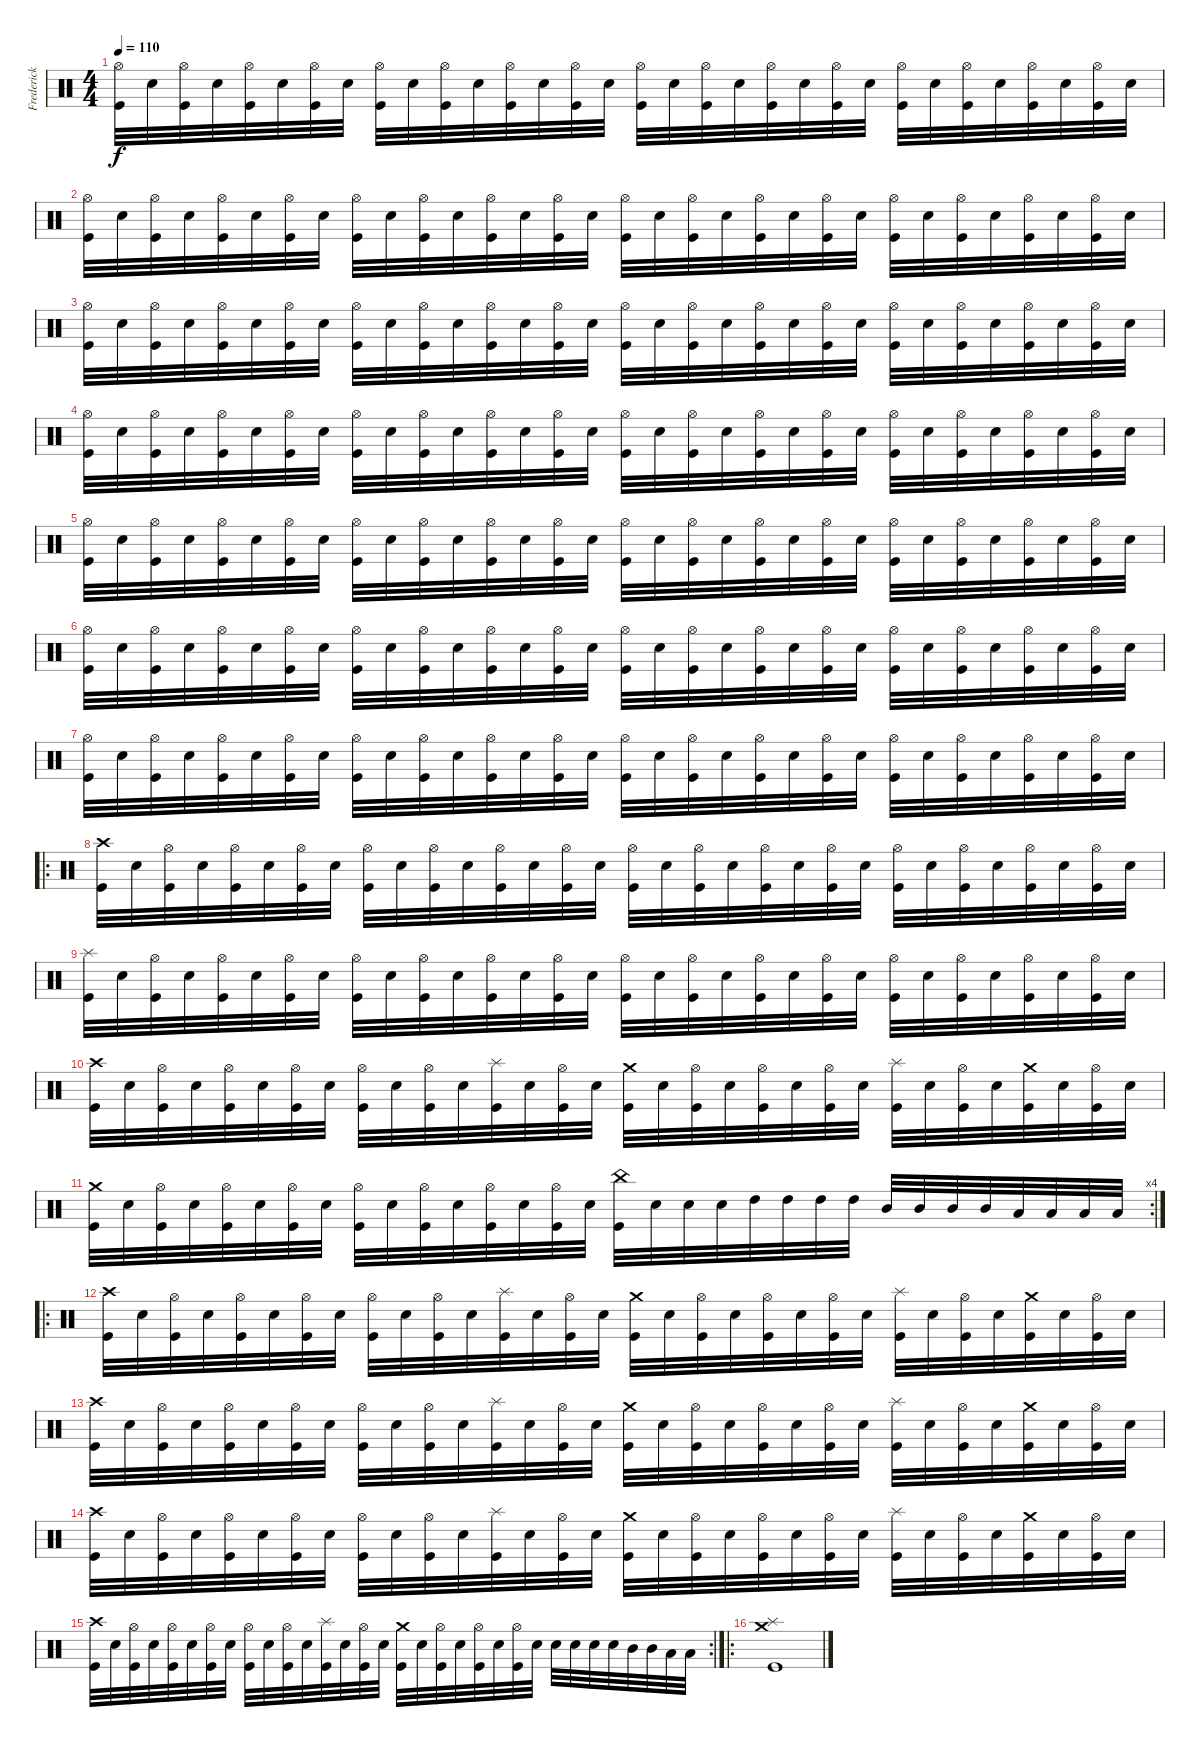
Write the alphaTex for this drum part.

\track ("Frederick" "Frederick") {instrument percussion}
\staff {score}
\articulation defaults
\ts (4 4)
\tempo 110
\clef neutral
\ks c
("Hi-Hat (open)" "Kick (hit)").32{dy f} "Electric Snare (hit)".32 ("Hi-Hat (open)" "Kick (hit)").32 "Electric Snare (hit)".32 ("Hi-Hat (open)" "Kick (hit)").32 "Electric Snare (hit)".32 ("Hi-Hat (open)" "Kick (hit)").32 "Electric Snare (hit)".32 ("Hi-Hat (open)" "Kick (hit)").32 "Electric Snare (hit)".32 ("Hi-Hat (open)" "Kick (hit)").32 "Electric Snare (hit)".32 ("Hi-Hat (open)" "Kick (hit)").32 "Electric Snare (hit)".32 ("Hi-Hat (open)" "Kick (hit)").32 "Electric Snare (hit)".32 ("Hi-Hat (open)" "Kick (hit)").32 "Electric Snare (hit)".32 ("Hi-Hat (open)" "Kick (hit)").32 "Electric Snare (hit)".32 ("Hi-Hat (open)" "Kick (hit)").32 "Electric Snare (hit)".32 ("Hi-Hat (open)" "Kick (hit)").32 "Electric Snare (hit)".32 ("Hi-Hat (open)" "Kick (hit)").32 "Electric Snare (hit)".32 ("Hi-Hat (open)" "Kick (hit)").32 "Electric Snare (hit)".32 ("Hi-Hat (open)" "Kick (hit)").32 "Electric Snare (hit)".32 ("Hi-Hat (open)" "Kick (hit)").32 "Electric Snare (hit)".32 |
("Hi-Hat (open)" "Kick (hit)").32 "Electric Snare (hit)".32 ("Hi-Hat (open)" "Kick (hit)").32 "Electric Snare (hit)".32 ("Hi-Hat (open)" "Kick (hit)").32 "Electric Snare (hit)".32 ("Hi-Hat (open)" "Kick (hit)").32 "Electric Snare (hit)".32 ("Hi-Hat (open)" "Kick (hit)").32 "Electric Snare (hit)".32 ("Hi-Hat (open)" "Kick (hit)").32 "Electric Snare (hit)".32 ("Hi-Hat (open)" "Kick (hit)").32 "Electric Snare (hit)".32 ("Hi-Hat (open)" "Kick (hit)").32 "Electric Snare (hit)".32 ("Hi-Hat (open)" "Kick (hit)").32 "Electric Snare (hit)".32 ("Hi-Hat (open)" "Kick (hit)").32 "Electric Snare (hit)".32 ("Hi-Hat (open)" "Kick (hit)").32 "Electric Snare (hit)".32 ("Hi-Hat (open)" "Kick (hit)").32 "Electric Snare (hit)".32 ("Hi-Hat (open)" "Kick (hit)").32 "Electric Snare (hit)".32 ("Hi-Hat (open)" "Kick (hit)").32 "Electric Snare (hit)".32 ("Hi-Hat (open)" "Kick (hit)").32 "Electric Snare (hit)".32 ("Hi-Hat (open)" "Kick (hit)").32 "Electric Snare (hit)".32 |
("Hi-Hat (open)" "Kick (hit)").32 "Electric Snare (hit)".32 ("Hi-Hat (open)" "Kick (hit)").32 "Electric Snare (hit)".32 ("Hi-Hat (open)" "Kick (hit)").32 "Electric Snare (hit)".32 ("Hi-Hat (open)" "Kick (hit)").32 "Electric Snare (hit)".32 ("Hi-Hat (open)" "Kick (hit)").32 "Electric Snare (hit)".32 ("Hi-Hat (open)" "Kick (hit)").32 "Electric Snare (hit)".32 ("Hi-Hat (open)" "Kick (hit)").32 "Electric Snare (hit)".32 ("Hi-Hat (open)" "Kick (hit)").32 "Electric Snare (hit)".32 ("Hi-Hat (open)" "Kick (hit)").32 "Electric Snare (hit)".32 ("Hi-Hat (open)" "Kick (hit)").32 "Electric Snare (hit)".32 ("Hi-Hat (open)" "Kick (hit)").32 "Electric Snare (hit)".32 ("Hi-Hat (open)" "Kick (hit)").32 "Electric Snare (hit)".32 ("Hi-Hat (open)" "Kick (hit)").32 "Electric Snare (hit)".32 ("Hi-Hat (open)" "Kick (hit)").32 "Electric Snare (hit)".32 ("Hi-Hat (open)" "Kick (hit)").32 "Electric Snare (hit)".32 ("Hi-Hat (open)" "Kick (hit)").32 "Electric Snare (hit)".32 |
("Hi-Hat (open)" "Kick (hit)").32 "Electric Snare (hit)".32 ("Hi-Hat (open)" "Kick (hit)").32 "Electric Snare (hit)".32 ("Hi-Hat (open)" "Kick (hit)").32 "Electric Snare (hit)".32 ("Hi-Hat (open)" "Kick (hit)").32 "Electric Snare (hit)".32 ("Hi-Hat (open)" "Kick (hit)").32 "Electric Snare (hit)".32 ("Hi-Hat (open)" "Kick (hit)").32 "Electric Snare (hit)".32 ("Hi-Hat (open)" "Kick (hit)").32 "Electric Snare (hit)".32 ("Hi-Hat (open)" "Kick (hit)").32 "Electric Snare (hit)".32 ("Hi-Hat (open)" "Kick (hit)").32 "Electric Snare (hit)".32 ("Hi-Hat (open)" "Kick (hit)").32 "Electric Snare (hit)".32 ("Hi-Hat (open)" "Kick (hit)").32 "Electric Snare (hit)".32 ("Hi-Hat (open)" "Kick (hit)").32 "Electric Snare (hit)".32 ("Hi-Hat (open)" "Kick (hit)").32 "Electric Snare (hit)".32 ("Hi-Hat (open)" "Kick (hit)").32 "Electric Snare (hit)".32 ("Hi-Hat (open)" "Kick (hit)").32 "Electric Snare (hit)".32 ("Hi-Hat (open)" "Kick (hit)").32 "Electric Snare (hit)".32 |
("Hi-Hat (open)" "Kick (hit)").32 "Electric Snare (hit)".32 ("Hi-Hat (open)" "Kick (hit)").32 "Electric Snare (hit)".32 ("Hi-Hat (open)" "Kick (hit)").32 "Electric Snare (hit)".32 ("Hi-Hat (open)" "Kick (hit)").32 "Electric Snare (hit)".32 ("Hi-Hat (open)" "Kick (hit)").32 "Electric Snare (hit)".32 ("Hi-Hat (open)" "Kick (hit)").32 "Electric Snare (hit)".32 ("Hi-Hat (open)" "Kick (hit)").32 "Electric Snare (hit)".32 ("Hi-Hat (open)" "Kick (hit)").32 "Electric Snare (hit)".32 ("Hi-Hat (open)" "Kick (hit)").32 "Electric Snare (hit)".32 ("Hi-Hat (open)" "Kick (hit)").32 "Electric Snare (hit)".32 ("Hi-Hat (open)" "Kick (hit)").32 "Electric Snare (hit)".32 ("Hi-Hat (open)" "Kick (hit)").32 "Electric Snare (hit)".32 ("Hi-Hat (open)" "Kick (hit)").32 "Electric Snare (hit)".32 ("Hi-Hat (open)" "Kick (hit)").32 "Electric Snare (hit)".32 ("Hi-Hat (open)" "Kick (hit)").32 "Electric Snare (hit)".32 ("Hi-Hat (open)" "Kick (hit)").32 "Electric Snare (hit)".32 |
("Hi-Hat (open)" "Kick (hit)").32 "Electric Snare (hit)".32 ("Hi-Hat (open)" "Kick (hit)").32 "Electric Snare (hit)".32 ("Hi-Hat (open)" "Kick (hit)").32 "Electric Snare (hit)".32 ("Hi-Hat (open)" "Kick (hit)").32 "Electric Snare (hit)".32 ("Hi-Hat (open)" "Kick (hit)").32 "Electric Snare (hit)".32 ("Hi-Hat (open)" "Kick (hit)").32 "Electric Snare (hit)".32 ("Hi-Hat (open)" "Kick (hit)").32 "Electric Snare (hit)".32 ("Hi-Hat (open)" "Kick (hit)").32 "Electric Snare (hit)".32 ("Hi-Hat (open)" "Kick (hit)").32 "Electric Snare (hit)".32 ("Hi-Hat (open)" "Kick (hit)").32 "Electric Snare (hit)".32 ("Hi-Hat (open)" "Kick (hit)").32 "Electric Snare (hit)".32 ("Hi-Hat (open)" "Kick (hit)").32 "Electric Snare (hit)".32 ("Hi-Hat (open)" "Kick (hit)").32 "Electric Snare (hit)".32 ("Hi-Hat (open)" "Kick (hit)").32 "Electric Snare (hit)".32 ("Hi-Hat (open)" "Kick (hit)").32 "Electric Snare (hit)".32 ("Hi-Hat (open)" "Kick (hit)").32 "Electric Snare (hit)".32 |
("Hi-Hat (open)" "Kick (hit)").32 "Electric Snare (hit)".32 ("Hi-Hat (open)" "Kick (hit)").32 "Electric Snare (hit)".32 ("Hi-Hat (open)" "Kick (hit)").32 "Electric Snare (hit)".32 ("Hi-Hat (open)" "Kick (hit)").32 "Electric Snare (hit)".32 ("Hi-Hat (open)" "Kick (hit)").32 "Electric Snare (hit)".32 ("Hi-Hat (open)" "Kick (hit)").32 "Electric Snare (hit)".32 ("Hi-Hat (open)" "Kick (hit)").32 "Electric Snare (hit)".32 ("Hi-Hat (open)" "Kick (hit)").32 "Electric Snare (hit)".32 ("Hi-Hat (open)" "Kick (hit)").32 "Electric Snare (hit)".32 ("Hi-Hat (open)" "Kick (hit)").32 "Electric Snare (hit)".32 ("Hi-Hat (open)" "Kick (hit)").32 "Electric Snare (hit)".32 ("Hi-Hat (open)" "Kick (hit)").32 "Electric Snare (hit)".32 ("Hi-Hat (open)" "Kick (hit)").32 "Electric Snare (hit)".32 ("Hi-Hat (open)" "Kick (hit)").32 "Electric Snare (hit)".32 ("Hi-Hat (open)" "Kick (hit)").32 "Electric Snare (hit)".32 ("Hi-Hat (open)" "Kick (hit)").32 "Electric Snare (hit)".32 |
\ro
("Crash high (hit)" "Kick (hit)").32 "Electric Snare (hit)".32 ("Hi-Hat (open)" "Kick (hit)").32 "Electric Snare (hit)".32 ("Hi-Hat (open)" "Kick (hit)").32 "Electric Snare (hit)".32 ("Hi-Hat (open)" "Kick (hit)").32 "Electric Snare (hit)".32 ("Hi-Hat (open)" "Kick (hit)").32 "Electric Snare (hit)".32 ("Hi-Hat (open)" "Kick (hit)").32 "Electric Snare (hit)".32 ("Hi-Hat (open)" "Kick (hit)").32 "Electric Snare (hit)".32 ("Hi-Hat (open)" "Kick (hit)").32 "Electric Snare (hit)".32 ("Hi-Hat (open)" "Kick (hit)").32 "Electric Snare (hit)".32 ("Hi-Hat (open)" "Kick (hit)").32 "Electric Snare (hit)".32 ("Hi-Hat (open)" "Kick (hit)").32 "Electric Snare (hit)".32 ("Hi-Hat (open)" "Kick (hit)").32 "Electric Snare (hit)".32 ("Hi-Hat (open)" "Kick (hit)").32 "Electric Snare (hit)".32 ("Hi-Hat (open)" "Kick (hit)").32 "Electric Snare (hit)".32 ("Hi-Hat (open)" "Kick (hit)").32 "Electric Snare (hit)".32 ("Hi-Hat (open)" "Kick (hit)").32 "Electric Snare (hit)".32 |
("Splash (hit)" "Kick (hit)").32 "Electric Snare (hit)".32 ("Hi-Hat (open)" "Kick (hit)").32 "Electric Snare (hit)".32 ("Hi-Hat (open)" "Kick (hit)").32 "Electric Snare (hit)".32 ("Hi-Hat (open)" "Kick (hit)").32 "Electric Snare (hit)".32 ("Hi-Hat (open)" "Kick (hit)").32 "Electric Snare (hit)".32 ("Hi-Hat (open)" "Kick (hit)").32 "Electric Snare (hit)".32 ("Hi-Hat (open)" "Kick (hit)").32 "Electric Snare (hit)".32 ("Hi-Hat (open)" "Kick (hit)").32 "Electric Snare (hit)".32 ("Hi-Hat (open)" "Kick (hit)").32 "Electric Snare (hit)".32 ("Hi-Hat (open)" "Kick (hit)").32 "Electric Snare (hit)".32 ("Hi-Hat (open)" "Kick (hit)").32 "Electric Snare (hit)".32 ("Hi-Hat (open)" "Kick (hit)").32 "Electric Snare (hit)".32 ("Hi-Hat (open)" "Kick (hit)").32 "Electric Snare (hit)".32 ("Hi-Hat (open)" "Kick (hit)").32 "Electric Snare (hit)".32 ("Hi-Hat (open)" "Kick (hit)").32 "Electric Snare (hit)".32 ("Hi-Hat (open)" "Kick (hit)").32 "Electric Snare (hit)".32 |
("Crash high (hit)" "Kick (hit)").32 "Electric Snare (hit)".32 ("Hi-Hat (open)" "Kick (hit)").32 "Electric Snare (hit)".32 ("Hi-Hat (open)" "Kick (hit)").32 "Electric Snare (hit)".32 ("Hi-Hat (open)" "Kick (hit)").32 "Electric Snare (hit)".32 ("Hi-Hat (open)" "Kick (hit)").32 "Electric Snare (hit)".32 ("Hi-Hat (open)" "Kick (hit)").32 "Electric Snare (hit)".32 ("Splash (hit)" "Kick (hit)").32 "Electric Snare (hit)".32 ("Hi-Hat (open)" "Kick (hit)").32 "Electric Snare (hit)".32 ("Crash medium (hit)" "Kick (hit)").32 "Electric Snare (hit)".32 ("Hi-Hat (open)" "Kick (hit)").32 "Electric Snare (hit)".32 ("Hi-Hat (open)" "Kick (hit)").32 "Electric Snare (hit)".32 ("Hi-Hat (open)" "Kick (hit)").32 "Electric Snare (hit)".32 ("Splash (hit)" "Kick (hit)").32 "Electric Snare (hit)".32 ("Hi-Hat (open)" "Kick (hit)").32 "Electric Snare (hit)".32 ("Crash medium (hit)" "Kick (hit)").32 "Electric Snare (hit)".32 ("Hi-Hat (open)" "Kick (hit)").32 "Electric Snare (hit)".32 |
\rc 4
("Crash medium (hit)" "Kick (hit)").32 "Electric Snare (hit)".32 ("Hi-Hat (open)" "Kick (hit)").32 "Electric Snare (hit)".32 ("Hi-Hat (open)" "Kick (hit)").32 "Electric Snare (hit)".32 ("Hi-Hat (open)" "Kick (hit)").32 "Electric Snare (hit)".32 ("Hi-Hat (open)" "Kick (hit)").32 "Electric Snare (hit)".32 ("Hi-Hat (open)" "Kick (hit)").32 "Electric Snare (hit)".32 ("Hi-Hat (open)" "Kick (hit)").32 "Electric Snare (hit)".32 ("Hi-Hat (open)" "Kick (hit)").32 "Electric Snare (hit)".32 ("China (hit)" "Kick (hit)").32 "Electric Snare (hit)".32 "Electric Snare (hit)".32 "Electric Snare (hit)".32 "High Tom (hit)".32 "High Tom (hit)".32 "High Tom (hit)".32 "High Tom (hit)".32 "Mid Tom (hit)".32 "Mid Tom (hit)".32 "Mid Tom (hit)".32 "Mid Tom (hit)".32 "Low Tom (hit)".32 "Low Tom (hit)".32 "Low Tom (hit)".32 "Low Tom (hit)".32 |
\ro
("Crash high (hit)" "Kick (hit)").32 "Electric Snare (hit)".32 ("Hi-Hat (open)" "Kick (hit)").32 "Electric Snare (hit)".32 ("Hi-Hat (open)" "Kick (hit)").32 "Electric Snare (hit)".32 ("Hi-Hat (open)" "Kick (hit)").32 "Electric Snare (hit)".32 ("Hi-Hat (open)" "Kick (hit)").32 "Electric Snare (hit)".32 ("Hi-Hat (open)" "Kick (hit)").32 "Electric Snare (hit)".32 ("Splash (hit)" "Kick (hit)").32 "Electric Snare (hit)".32 ("Hi-Hat (open)" "Kick (hit)").32 "Electric Snare (hit)".32 ("Crash medium (hit)" "Kick (hit)").32 "Electric Snare (hit)".32 ("Hi-Hat (open)" "Kick (hit)").32 "Electric Snare (hit)".32 ("Hi-Hat (open)" "Kick (hit)").32 "Electric Snare (hit)".32 ("Hi-Hat (open)" "Kick (hit)").32 "Electric Snare (hit)".32 ("Splash (hit)" "Kick (hit)").32 "Electric Snare (hit)".32 ("Hi-Hat (open)" "Kick (hit)").32 "Electric Snare (hit)".32 ("Crash medium (hit)" "Kick (hit)").32 "Electric Snare (hit)".32 ("Hi-Hat (open)" "Kick (hit)").32 "Electric Snare (hit)".32 |
("Crash high (hit)" "Kick (hit)").32 "Electric Snare (hit)".32 ("Hi-Hat (open)" "Kick (hit)").32 "Electric Snare (hit)".32 ("Hi-Hat (open)" "Kick (hit)").32 "Electric Snare (hit)".32 ("Hi-Hat (open)" "Kick (hit)").32 "Electric Snare (hit)".32 ("Hi-Hat (open)" "Kick (hit)").32 "Electric Snare (hit)".32 ("Hi-Hat (open)" "Kick (hit)").32 "Electric Snare (hit)".32 ("Splash (hit)" "Kick (hit)").32 "Electric Snare (hit)".32 ("Hi-Hat (open)" "Kick (hit)").32 "Electric Snare (hit)".32 ("Crash medium (hit)" "Kick (hit)").32 "Electric Snare (hit)".32 ("Hi-Hat (open)" "Kick (hit)").32 "Electric Snare (hit)".32 ("Hi-Hat (open)" "Kick (hit)").32 "Electric Snare (hit)".32 ("Hi-Hat (open)" "Kick (hit)").32 "Electric Snare (hit)".32 ("Splash (hit)" "Kick (hit)").32 "Electric Snare (hit)".32 ("Hi-Hat (open)" "Kick (hit)").32 "Electric Snare (hit)".32 ("Crash medium (hit)" "Kick (hit)").32 "Electric Snare (hit)".32 ("Hi-Hat (open)" "Kick (hit)").32 "Electric Snare (hit)".32 |
("Crash high (hit)" "Kick (hit)").32 "Electric Snare (hit)".32 ("Hi-Hat (open)" "Kick (hit)").32 "Electric Snare (hit)".32 ("Hi-Hat (open)" "Kick (hit)").32 "Electric Snare (hit)".32 ("Hi-Hat (open)" "Kick (hit)").32 "Electric Snare (hit)".32 ("Hi-Hat (open)" "Kick (hit)").32 "Electric Snare (hit)".32 ("Hi-Hat (open)" "Kick (hit)").32 "Electric Snare (hit)".32 ("Splash (hit)" "Kick (hit)").32 "Electric Snare (hit)".32 ("Hi-Hat (open)" "Kick (hit)").32 "Electric Snare (hit)".32 ("Crash medium (hit)" "Kick (hit)").32 "Electric Snare (hit)".32 ("Hi-Hat (open)" "Kick (hit)").32 "Electric Snare (hit)".32 ("Hi-Hat (open)" "Kick (hit)").32 "Electric Snare (hit)".32 ("Hi-Hat (open)" "Kick (hit)").32 "Electric Snare (hit)".32 ("Splash (hit)" "Kick (hit)").32 "Electric Snare (hit)".32 ("Hi-Hat (open)" "Kick (hit)").32 "Electric Snare (hit)".32 ("Crash medium (hit)" "Kick (hit)").32 "Electric Snare (hit)".32 ("Hi-Hat (open)" "Kick (hit)").32 "Electric Snare (hit)".32 |
\rc 2
("Crash high (hit)" "Kick (hit)").32 "Electric Snare (hit)".32 ("Hi-Hat (open)" "Kick (hit)").32 "Electric Snare (hit)".32 ("Hi-Hat (open)" "Kick (hit)").32 "Electric Snare (hit)".32 ("Hi-Hat (open)" "Kick (hit)").32 "Electric Snare (hit)".32 ("Hi-Hat (open)" "Kick (hit)").32 "Electric Snare (hit)".32 ("Hi-Hat (open)" "Kick (hit)").32 "Electric Snare (hit)".32 ("Splash (hit)" "Kick (hit)").32 "Electric Snare (hit)".32 ("Hi-Hat (open)" "Kick (hit)").32 "Electric Snare (hit)".32 ("Crash medium (hit)" "Kick (hit)").32 "Electric Snare (hit)".32 ("Hi-Hat (open)" "Kick (hit)").32 "Electric Snare (hit)".32 ("Hi-Hat (open)" "Kick (hit)").32 "Electric Snare (hit)".32 ("Hi-Hat (open)" "Kick (hit)").32 "Electric Snare (hit)".32 "Electric Snare (hit)".32 "Electric Snare (hit)".32 "Electric Snare (hit)".32 "Electric Snare (hit)".32 "Mid Tom (hit)".32 "Mid Tom (hit)".32 "Low Tom (hit)".32 "Low Tom (hit)".32 |
\ro
("Crash medium (hit)" "Splash (hit)" "Kick (hit)").1
